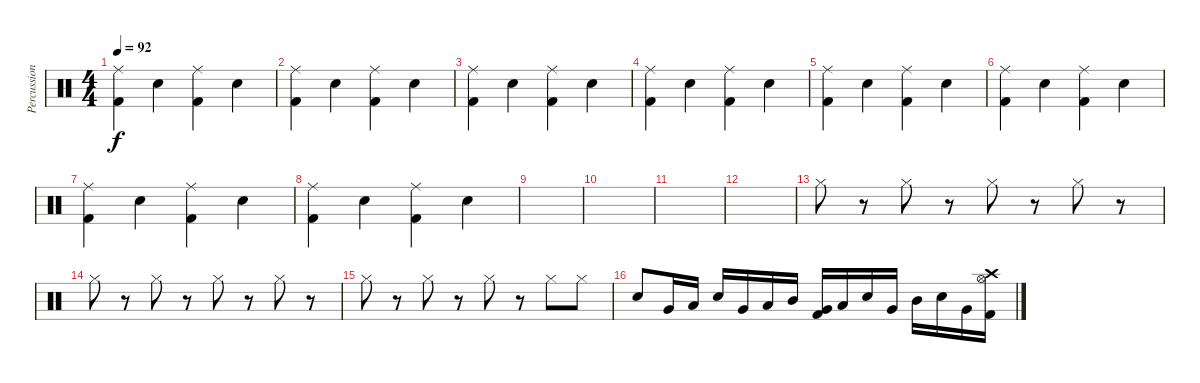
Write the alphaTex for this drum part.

\track ("Percussions" "Percussion") {instrument percussion}
\staff {score}
\articulation defaults
\ts (4 4)
\tempo 92
\clef neutral
\ks c
("Kick (hit) 2" "Ride (middle)").4{dy f} "Snare (hit) 2".4 ("Kick (hit) 2" "Ride (middle)").4 "Snare (hit) 2".4 |
("Kick (hit) 2" "Ride (middle)").4 "Snare (hit) 2".4 ("Kick (hit) 2" "Ride (middle)").4 "Snare (hit) 2".4 |
("Kick (hit) 2" "Ride (middle)").4 "Snare (hit) 2".4 ("Kick (hit) 2" "Ride (middle)").4 "Snare (hit) 2".4 |
("Kick (hit) 2" "Ride (middle)").4 "Snare (hit) 2".4 ("Kick (hit) 2" "Ride (middle)").4 "Snare (hit) 2".4 |
("Kick (hit) 2" "Ride (middle)").4 "Snare (hit) 2".4 ("Kick (hit) 2" "Ride (middle)").4 "Snare (hit) 2".4 |
("Kick (hit) 2" "Ride (middle)").4 "Snare (hit) 2".4 ("Kick (hit) 2" "Ride (middle)").4 "Snare (hit) 2".4 |
("Kick (hit) 2" "Ride (middle)").4 "Snare (hit) 2".4 ("Kick (hit) 2" "Ride (middle)").4 "Snare (hit) 2".4 |
("Kick (hit) 2" "Ride (middle)").4 "Snare (hit) 2".4 ("Kick (hit) 2" "Ride (middle)").4 "Snare (hit) 2".4 |
|
|
|
|
"Hi-Hat (closed)".8 r.8 "Hi-Hat (closed)".8 r.8 "Hi-Hat (closed)".8 r.8 "Hi-Hat (closed)".8 r.8 |
"Hi-Hat (closed)".8 r.8 "Hi-Hat (closed)".8 r.8 "Hi-Hat (closed)".8 r.8 "Hi-Hat (closed)".8 r.8 |
"Hi-Hat (closed)".8 r.8 "Hi-Hat (closed)".8 r.8 "Hi-Hat (closed)".8 r.8 "Hi-Hat (closed)".8 "Hi-Hat (closed)".8 |
"Snare (hit) 2".8 "Very Low Tom (hit)".16 "Low Tom (hit)".16 "Electric Snare (hit)".16 "Very Low Tom (hit)".16 "Low Tom (hit)".16 "Mid Tom (hit)".16 ("Very Low Tom (hit)" "Kick (hit) 2").16 "Low Tom (hit)".16 "Electric Snare (hit)".16 "Very Low Tom (hit)".16 "Mid Tom (hit)".16 "Snare (hit) 2".16 "Very Low Tom (hit)".16 ("Hi-Hat (open)" "Crash high (hit)" "Kick (hit) 2").16
